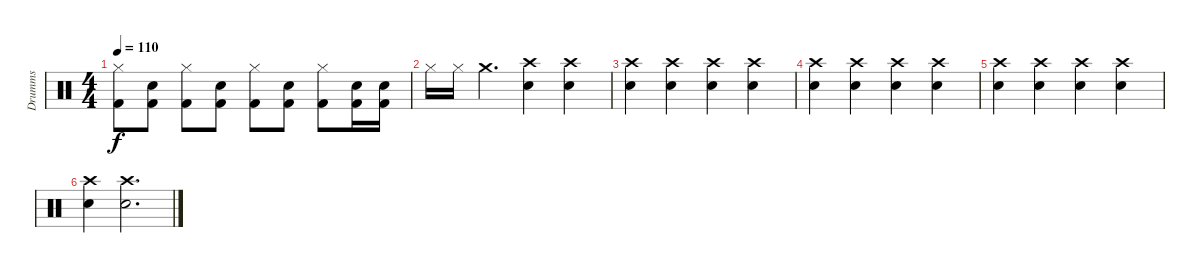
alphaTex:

\track ("Drumms" "Drumms") {instrument percussion}
\staff {score}
\articulation defaults
\ts (4 4)
\tempo 110
\clef neutral
\ks c
("Kick (hit) 2" "Hi-Hat (closed)").8{dy f} ("Kick (hit) 2" "Snare (hit) 2").8 ("Kick (hit) 2" "Hi-Hat (closed)").8 ("Kick (hit) 2" "Snare (hit) 2").8 ("Kick (hit) 2" "Hi-Hat (closed)").8 ("Kick (hit) 2" "Snare (hit) 2").8 ("Kick (hit) 2" "Hi-Hat (closed)").8 ("Kick (hit) 2" "Snare (hit) 2").16 ("Kick (hit) 2" "Snare (hit) 2").16 |
"Hi-Hat (closed)".16 "Hi-Hat (closed)".16 "Crash medium (hit)".4{d} ("Snare (hit) 2" "Crash high (hit)").4 ("Snare (hit) 2" "Crash high (hit)").4 |
("Snare (hit) 2" "Crash high (hit)").4 ("Snare (hit) 2" "Crash high (hit)").4 ("Snare (hit) 2" "Crash high (hit)").4 ("Snare (hit) 2" "Crash high (hit)").4 |
("Snare (hit) 2" "Crash high (hit)").4 ("Snare (hit) 2" "Crash high (hit)").4 ("Snare (hit) 2" "Crash high (hit)").4 ("Snare (hit) 2" "Crash high (hit)").4 |
("Snare (hit) 2" "Crash high (hit)").4 ("Snare (hit) 2" "Crash high (hit)").4 ("Snare (hit) 2" "Crash high (hit)").4 ("Snare (hit) 2" "Crash high (hit)").4 |
("Snare (hit) 2" "Crash high (hit)").4 ("Snare (hit) 2" "Crash high (hit)").2{d}
